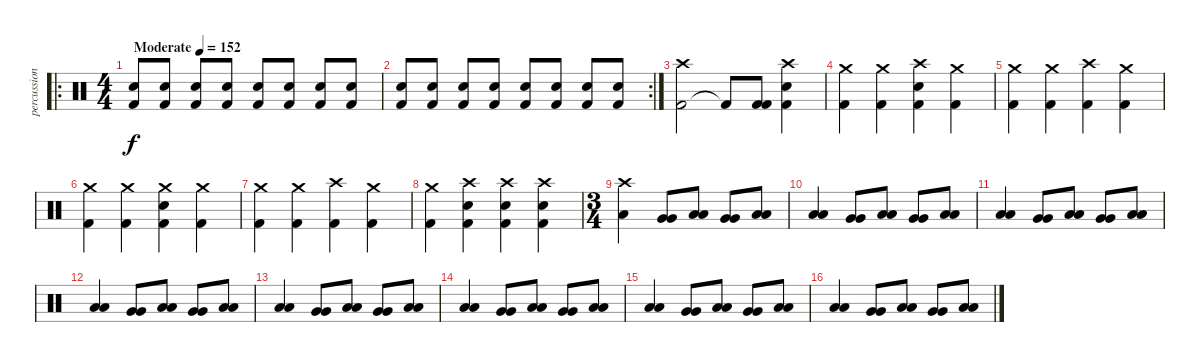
\track ("percussion" "percussion") {instrument percussion bank 177}
\staff {score}
\articulation defaults
\ro
\ts (4 4)
\tempo (152 "Moderate")
\clef neutral
\ks c
("Kick (hit) 2" "Electric Snare (hit)").8{dy f} ("Kick (hit) 2" "Electric Snare (hit)").8 ("Kick (hit) 2" "Electric Snare (hit)").8 ("Kick (hit) 2" "Electric Snare (hit)").8 ("Kick (hit) 2" "Electric Snare (hit)").8 ("Kick (hit) 2" "Electric Snare (hit)").8 ("Kick (hit) 2" "Electric Snare (hit)").8 ("Kick (hit) 2" "Electric Snare (hit)").8 |
\rc 2
("Kick (hit) 2" "Electric Snare (hit)").8 ("Kick (hit) 2" "Electric Snare (hit)").8 ("Kick (hit) 2" "Electric Snare (hit)").8 ("Kick (hit) 2" "Electric Snare (hit)").8 ("Kick (hit) 2" "Electric Snare (hit)").8 ("Kick (hit) 2" "Electric Snare (hit)").8 ("Kick (hit) 2" "Electric Snare (hit)").8 ("Kick (hit) 2" "Electric Snare (hit)").8 |
("Kick (hit) 2" "Crash high (hit)").2 "Kick (hit) 2"{t}.8 ("Kick (hit) 2" "Kick (hit) 2").8 ("Kick (hit) 2" "Electric Snare (hit)" "Crash high (hit)").4 |
("Kick (hit) 2" "Crash medium (hit)").4 ("Kick (hit) 2" "Crash medium (hit)").4 ("Kick (hit) 2" "Electric Snare (hit)" "Crash high (hit)").4 ("Kick (hit) 2" "Crash medium (hit)").4 |
("Kick (hit) 2" "Crash medium (hit)").4 ("Kick (hit) 2" "Crash medium (hit)").4 ("Kick (hit) 2" "Crash high (hit)").4 ("Kick (hit) 2" "Crash medium (hit)").4 |
("Kick (hit) 2" "Crash medium (hit)").4 ("Kick (hit) 2" "Crash medium (hit)").4 ("Kick (hit) 2" "Electric Snare (hit)" "Crash medium (hit)").4 ("Kick (hit) 2" "Crash medium (hit)").4 |
("Kick (hit) 2" "Crash medium (hit)").4 ("Kick (hit) 2" "Crash medium (hit)").4 ("Kick (hit) 2" "Crash high (hit)").4 ("Kick (hit) 2" "Crash medium (hit)").4 |
("Kick (hit) 2" "Crash medium (hit)").4 ("Kick (hit) 2" "Electric Snare (hit)" "Crash high (hit)").4 ("Kick (hit) 2" "Electric Snare (hit)" "Crash high (hit)").4 ("Kick (hit) 2" "Electric Snare (hit)" "Crash high (hit)").4 |
\ts (3 4)
("Low Tom (hit)" "Crash high (hit)").4 ("Very Low Tom (hit)" "Very Low Tom (hit)").8 ("Low Tom (hit)" "Low Tom (hit)").8 ("Very Low Tom (hit)" "Very Low Tom (hit)").8 ("Low Tom (hit)" "Low Tom (hit)").8 |
("Low Tom (hit)" "Low Tom (hit)").4 ("Very Low Tom (hit)" "Very Low Tom (hit)").8 ("Low Tom (hit)" "Low Tom (hit)").8 ("Very Low Tom (hit)" "Very Low Tom (hit)").8 ("Low Tom (hit)" "Low Tom (hit)").8 |
("Low Tom (hit)" "Low Tom (hit)").4 ("Very Low Tom (hit)" "Very Low Tom (hit)").8 ("Low Tom (hit)" "Low Tom (hit)").8 ("Very Low Tom (hit)" "Very Low Tom (hit)").8 ("Low Tom (hit)" "Low Tom (hit)").8 |
("Low Tom (hit)" "Low Tom (hit)").4 ("Very Low Tom (hit)" "Very Low Tom (hit)").8 ("Low Tom (hit)" "Low Tom (hit)").8 ("Very Low Tom (hit)" "Very Low Tom (hit)").8 ("Low Tom (hit)" "Low Tom (hit)").8 |
("Low Tom (hit)" "Low Tom (hit)").4 ("Very Low Tom (hit)" "Very Low Tom (hit)").8 ("Low Tom (hit)" "Low Tom (hit)").8 ("Very Low Tom (hit)" "Very Low Tom (hit)").8 ("Low Tom (hit)" "Low Tom (hit)").8 |
("Low Tom (hit)" "Low Tom (hit)").4 ("Very Low Tom (hit)" "Very Low Tom (hit)").8 ("Low Tom (hit)" "Low Tom (hit)").8 ("Very Low Tom (hit)" "Very Low Tom (hit)").8 ("Low Tom (hit)" "Low Tom (hit)").8 |
("Low Tom (hit)" "Low Tom (hit)").4 ("Very Low Tom (hit)" "Very Low Tom (hit)").8 ("Low Tom (hit)" "Low Tom (hit)").8 ("Very Low Tom (hit)" "Very Low Tom (hit)").8 ("Low Tom (hit)" "Low Tom (hit)").8 |
("Low Tom (hit)" "Low Tom (hit)").4 ("Very Low Tom (hit)" "Very Low Tom (hit)").8 ("Low Tom (hit)" "Low Tom (hit)").8 ("Very Low Tom (hit)" "Very Low Tom (hit)").8 ("Low Tom (hit)" "Low Tom (hit)").8
